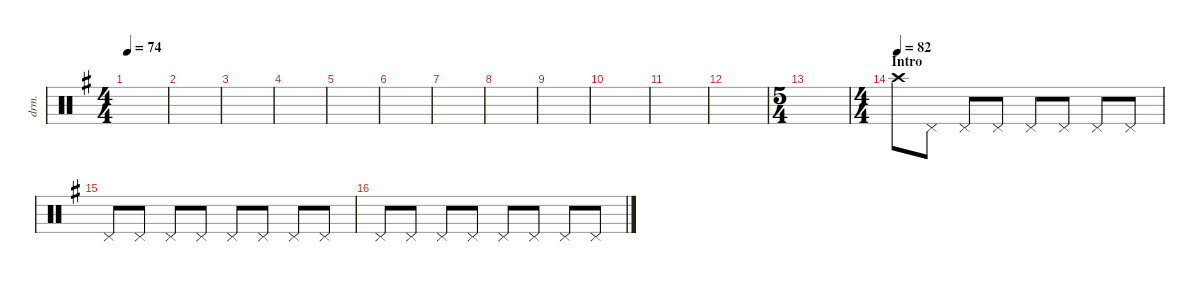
\defaultSystemsLayout 2
\hideDynamics
\bracketExtendMode nobrackets
\otherSystemsTrackNameOrientation horizontal
\track ("Drums (Cymbals)" "drm.") {instrument percussion}
\staff {score}
\articulation defaults
\ts (4 4)
\beaming (8 2 2 2 2)
\tempo 74
\clef neutral
\ks g
|
|
|
|
|
|
|
|
|
|
|
|
\ts (5 4)
\beaming (8 5 5)
|
\ts (4 4)
\beaming (8 2 2 2 2)
\section ("" "Intro")
\tempo (82)
"Crash high (hit)".8 "Pedal Hi-Hat (hit)".8 "Pedal Hi-Hat (hit)".8 "Pedal Hi-Hat (hit)".8 "Pedal Hi-Hat (hit)".8 "Pedal Hi-Hat (hit)".8 "Pedal Hi-Hat (hit)".8 "Pedal Hi-Hat (hit)".8 |
"Pedal Hi-Hat (hit)".8 "Pedal Hi-Hat (hit)".8 "Pedal Hi-Hat (hit)".8 "Pedal Hi-Hat (hit)".8 "Pedal Hi-Hat (hit)".8 "Pedal Hi-Hat (hit)".8 "Pedal Hi-Hat (hit)".8 "Pedal Hi-Hat (hit)".8 |
"Pedal Hi-Hat (hit)".8 "Pedal Hi-Hat (hit)".8 "Pedal Hi-Hat (hit)".8 "Pedal Hi-Hat (hit)".8 "Pedal Hi-Hat (hit)".8 "Pedal Hi-Hat (hit)".8 "Pedal Hi-Hat (hit)".8 "Pedal Hi-Hat (hit)".8
